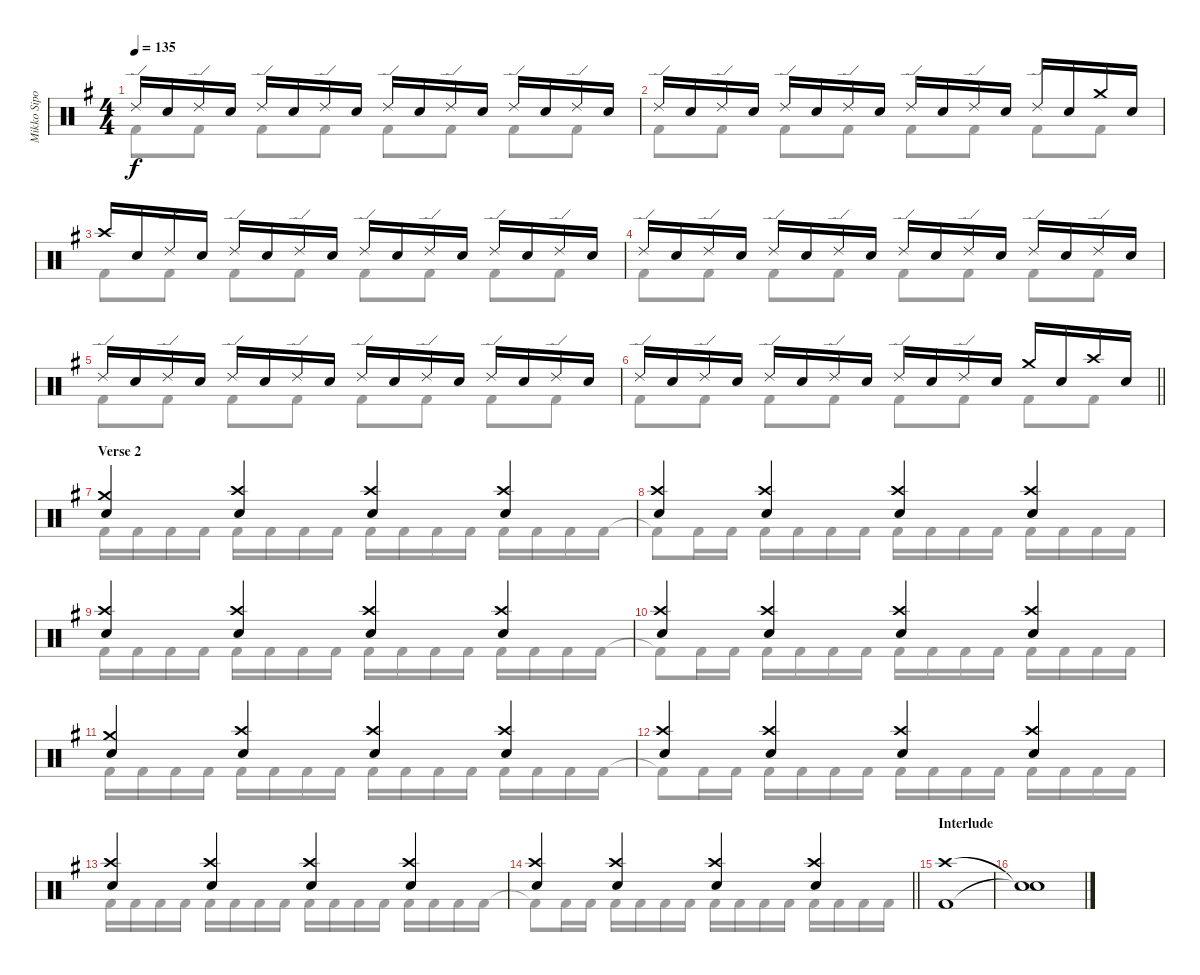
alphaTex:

\track ("Mikko Sipola (drums)" "Mikko Sipo") {instrument percussion}
\staff {score}
\articulation defaults
\voice
\ts (4 4)
\tempo 135
\clef neutral
\ks eminor "Ride (edge) 2".16{dy f} "Electric Snare (hit)".16 "Ride (edge) 2".16 "Electric Snare (hit)".16 "Ride (edge) 2".16 "Electric Snare (hit)".16 "Ride (edge) 2".16 "Electric Snare (hit)".16 "Ride (edge) 2".16 "Electric Snare (hit)".16 "Ride (edge) 2".16 "Electric Snare (hit)".16 "Ride (edge) 2".16 "Electric Snare (hit)".16 "Ride (edge) 2".16 "Electric Snare (hit)".16
|
"Ride (edge) 2".16 "Electric Snare (hit)".16 "Ride (edge) 2".16 "Electric Snare (hit)".16 "Ride (edge) 2".16 "Electric Snare (hit)".16 "Ride (edge) 2".16 "Electric Snare (hit)".16 "Ride (edge) 2".16 "Electric Snare (hit)".16 "Ride (edge) 2".16 "Electric Snare (hit)".16 "Ride (edge) 2".16 "Electric Snare (hit)".16 "Crash medium (hit)".16 "Electric Snare (hit)".16 |
"Crash high (hit)".16 "Electric Snare (hit)".16 "Ride (edge) 2".16 "Electric Snare (hit)".16 "Ride (edge) 2".16 "Electric Snare (hit)".16 "Ride (edge) 2".16 "Electric Snare (hit)".16 "Ride (edge) 2".16 "Electric Snare (hit)".16 "Ride (edge) 2".16 "Electric Snare (hit)".16 "Ride (edge) 2".16 "Electric Snare (hit)".16 "Ride (edge) 2".16 "Electric Snare (hit)".16 |
"Ride (edge) 2".16 "Electric Snare (hit)".16 "Ride (edge) 2".16 "Electric Snare (hit)".16 "Ride (edge) 2".16 "Electric Snare (hit)".16 "Ride (edge) 2".16 "Electric Snare (hit)".16 "Ride (edge) 2".16 "Electric Snare (hit)".16 "Ride (edge) 2".16 "Electric Snare (hit)".16 "Ride (edge) 2".16 "Electric Snare (hit)".16 "Ride (edge) 2".16 "Electric Snare (hit)".16 |
"Ride (edge) 2".16 "Electric Snare (hit)".16 "Ride (edge) 2".16 "Electric Snare (hit)".16 "Ride (edge) 2".16 "Electric Snare (hit)".16 "Ride (edge) 2".16 "Electric Snare (hit)".16 "Ride (edge) 2".16 "Electric Snare (hit)".16 "Ride (edge) 2".16 "Electric Snare (hit)".16 "Ride (edge) 2".16 "Electric Snare (hit)".16 "Ride (edge) 2".16 "Electric Snare (hit)".16 |
\barLineRight lightlight "Ride (edge) 2".16 "Electric Snare (hit)".16 "Ride (edge) 2".16 "Electric Snare (hit)".16 "Ride (edge) 2".16 "Electric Snare (hit)".16 "Ride (edge) 2".16 "Electric Snare (hit)".16 "Ride (edge) 2".16 "Electric Snare (hit)".16 "Ride (edge) 2".16 "Electric Snare (hit)".16 "Crash medium (hit)".16 "Electric Snare (hit)".16 "Crash high (hit)".16 "Electric Snare (hit)".16
|
\section ("" "Verse 2")
("Electric Snare (hit)" "Crash medium (hit)").4 ("Electric Snare (hit)" "Crash high (hit)").4 ("Electric Snare (hit)" "Crash high (hit)").4 ("Electric Snare (hit)" "Crash high (hit)").4 |
("Electric Snare (hit)" "Crash high (hit)").4 ("Electric Snare (hit)" "Crash high (hit)").4 ("Electric Snare (hit)" "Crash high (hit)").4 ("Electric Snare (hit)" "Crash high (hit)").4 |
("Electric Snare (hit)" "Crash high (hit)").4 ("Electric Snare (hit)" "Crash high (hit)").4 ("Electric Snare (hit)" "Crash high (hit)").4 ("Electric Snare (hit)" "Crash high (hit)").4 |
("Electric Snare (hit)" "Crash high (hit)").4 ("Electric Snare (hit)" "Crash high (hit)").4 ("Electric Snare (hit)" "Crash high (hit)").4 ("Electric Snare (hit)" "Crash high (hit)").4 |
("Electric Snare (hit)" "Crash medium (hit)").4 ("Electric Snare (hit)" "Crash high (hit)").4 ("Electric Snare (hit)" "Crash high (hit)").4 ("Electric Snare (hit)" "Crash high (hit)").4 |
("Electric Snare (hit)" "Crash high (hit)").4 ("Electric Snare (hit)" "Crash high (hit)").4 ("Electric Snare (hit)" "Crash high (hit)").4 ("Electric Snare (hit)" "Crash high (hit)").4 |
("Electric Snare (hit)" "Crash high (hit)").4 ("Electric Snare (hit)" "Crash high (hit)").4 ("Electric Snare (hit)" "Crash high (hit)").4 ("Electric Snare (hit)" "Crash high (hit)").4 |
\barLineRight lightlight
("Electric Snare (hit)" "Crash high (hit)").4 ("Electric Snare (hit)" "Crash high (hit)").4 ("Electric Snare (hit)" "Crash high (hit)").4 ("Electric Snare (hit)" "Crash high (hit)").4 |
\section ("" "Interlude")
("Crash high (hit)" "Kick (hit) 2").1 |
("Snare (hit)"{t} "Snare (hit)"{t}).1
\voice
\clef neutral
\ottava regular
\simile none
\ks eminor "Kick (hit) 2".8{dy f} "Kick (hit) 2".8 "Kick (hit) 2".8 "Kick (hit) 2".8 "Kick (hit) 2".8 "Kick (hit) 2".8 "Kick (hit) 2".8 "Kick (hit) 2".8
|
"Kick (hit) 2".8 "Kick (hit) 2".8 "Kick (hit) 2".8 "Kick (hit) 2".8 "Kick (hit) 2".8 "Kick (hit) 2".8 "Kick (hit) 2".8 "Kick (hit) 2".8 |
"Kick (hit) 2".8 "Kick (hit) 2".8 "Kick (hit) 2".8 "Kick (hit) 2".8 "Kick (hit) 2".8 "Kick (hit) 2".8 "Kick (hit) 2".8 "Kick (hit) 2".8 |
"Kick (hit) 2".8 "Kick (hit) 2".8 "Kick (hit) 2".8 "Kick (hit) 2".8 "Kick (hit) 2".8 "Kick (hit) 2".8 "Kick (hit) 2".8 "Kick (hit) 2".8 |
"Kick (hit) 2".8 "Kick (hit) 2".8 "Kick (hit) 2".8 "Kick (hit) 2".8 "Kick (hit) 2".8 "Kick (hit) 2".8 "Kick (hit) 2".8 "Kick (hit) 2".8 |
\barLineRight lightlight "Kick (hit) 2".8 "Kick (hit) 2".8 "Kick (hit) 2".8 "Kick (hit) 2".8 "Kick (hit) 2".8 "Kick (hit) 2".8 "Kick (hit) 2".8 "Kick (hit) 2".8
|
"Kick (hit) 2".16 "Kick (hit) 2".16 "Kick (hit) 2".16 "Kick (hit) 2".16 "Kick (hit) 2".16 "Kick (hit) 2".16 "Kick (hit) 2".16 "Kick (hit) 2".16 "Kick (hit) 2".16 "Kick (hit) 2".16 "Kick (hit) 2".16 "Kick (hit) 2".16 "Kick (hit) 2".16 "Kick (hit) 2".16 "Kick (hit) 2".16 "Kick (hit) 2".16 |
"Kick (hit) 2"{t}.8 "Kick (hit) 2".16 "Kick (hit) 2".16 "Kick (hit) 2".16 "Kick (hit) 2".16 "Kick (hit) 2".16 "Kick (hit) 2".16 "Kick (hit) 2".16 "Kick (hit) 2".16 "Kick (hit) 2".16 "Kick (hit) 2".16 "Kick (hit) 2".16 "Kick (hit) 2".16 "Kick (hit) 2".16 "Kick (hit) 2".16 |
"Kick (hit) 2".16 "Kick (hit) 2".16 "Kick (hit) 2".16 "Kick (hit) 2".16 "Kick (hit) 2".16 "Kick (hit) 2".16 "Kick (hit) 2".16 "Kick (hit) 2".16 "Kick (hit) 2".16 "Kick (hit) 2".16 "Kick (hit) 2".16 "Kick (hit) 2".16 "Kick (hit) 2".16 "Kick (hit) 2".16 "Kick (hit) 2".16 "Kick (hit) 2".16 |
"Kick (hit) 2"{t}.8 "Kick (hit) 2".16 "Kick (hit) 2".16 "Kick (hit) 2".16 "Kick (hit) 2".16 "Kick (hit) 2".16 "Kick (hit) 2".16 "Kick (hit) 2".16 "Kick (hit) 2".16 "Kick (hit) 2".16 "Kick (hit) 2".16 "Kick (hit) 2".16 "Kick (hit) 2".16 "Kick (hit) 2".16 "Kick (hit) 2".16 |
"Kick (hit) 2".16 "Kick (hit) 2".16 "Kick (hit) 2".16 "Kick (hit) 2".16 "Kick (hit) 2".16 "Kick (hit) 2".16 "Kick (hit) 2".16 "Kick (hit) 2".16 "Kick (hit) 2".16 "Kick (hit) 2".16 "Kick (hit) 2".16 "Kick (hit) 2".16 "Kick (hit) 2".16 "Kick (hit) 2".16 "Kick (hit) 2".16 "Kick (hit) 2".16 |
"Kick (hit) 2"{t}.8 "Kick (hit) 2".16 "Kick (hit) 2".16 "Kick (hit) 2".16 "Kick (hit) 2".16 "Kick (hit) 2".16 "Kick (hit) 2".16 "Kick (hit) 2".16 "Kick (hit) 2".16 "Kick (hit) 2".16 "Kick (hit) 2".16 "Kick (hit) 2".16 "Kick (hit) 2".16 "Kick (hit) 2".16 "Kick (hit) 2".16 |
"Kick (hit) 2".16 "Kick (hit) 2".16 "Kick (hit) 2".16 "Kick (hit) 2".16 "Kick (hit) 2".16 "Kick (hit) 2".16 "Kick (hit) 2".16 "Kick (hit) 2".16 "Kick (hit) 2".16 "Kick (hit) 2".16 "Kick (hit) 2".16 "Kick (hit) 2".16 "Kick (hit) 2".16 "Kick (hit) 2".16 "Kick (hit) 2".16 "Kick (hit) 2".16 |
\barLineRight lightlight "Kick (hit) 2"{t}.8 "Kick (hit) 2".16 "Kick (hit) 2".16 "Kick (hit) 2".16 "Kick (hit) 2".16 "Kick (hit) 2".16 "Kick (hit) 2".16 "Kick (hit) 2".16 "Kick (hit) 2".16 "Kick (hit) 2".16 "Kick (hit) 2".16 "Kick (hit) 2".16 "Kick (hit) 2".16 "Kick (hit) 2".16 "Kick (hit) 2".16
|
|
